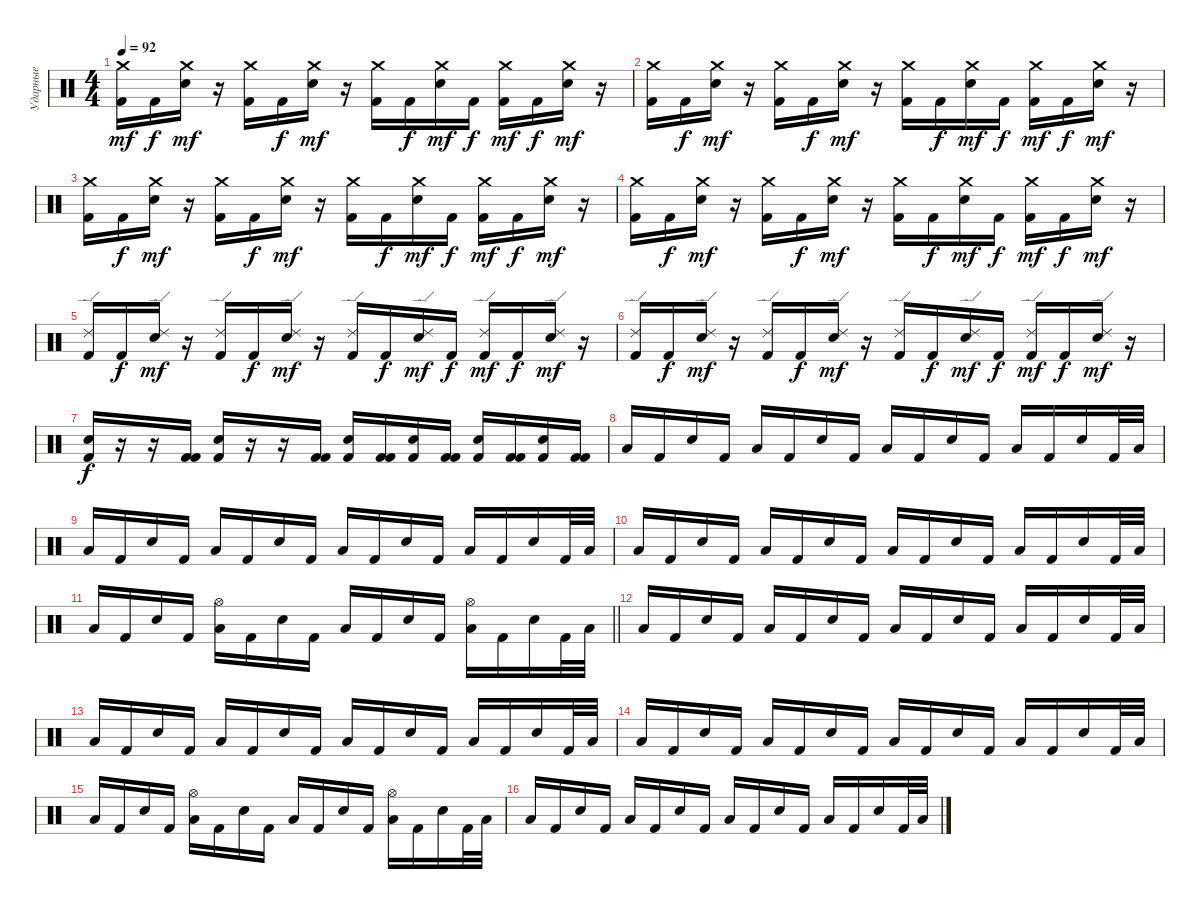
\track ("Ударные" "Ударные") {instrument percussion}
\staff {score}
\articulation defaults
\ts (4 4)
\tempo 92
\clef neutral
\ks c
("Crash medium (hit)" "Kick (hit) 2").16{dy mf} "Kick (hit) 2".16{dy f} ("Crash medium (hit)" "Snare (hit) 2").16{dy mf} r.16 ("Crash medium (hit)" "Kick (hit) 2").16 "Kick (hit) 2".16{dy f} ("Crash medium (hit)" "Snare (hit) 2").16{dy mf} r.16 ("Crash medium (hit)" "Kick (hit) 2").16 "Kick (hit) 2".16{dy f} ("Crash medium (hit)" "Snare (hit) 2").16{dy mf} "Kick (hit) 2".16{dy f} ("Crash medium (hit)" "Kick (hit) 2").16{dy mf} "Kick (hit) 2".16{dy f} ("Crash medium (hit)" "Snare (hit) 2").16{dy mf} r.16 |
("Crash medium (hit)" "Kick (hit) 2").16 "Kick (hit) 2".16{dy f} ("Crash medium (hit)" "Snare (hit) 2").16{dy mf} r.16 ("Crash medium (hit)" "Kick (hit) 2").16 "Kick (hit) 2".16{dy f} ("Crash medium (hit)" "Snare (hit) 2").16{dy mf} r.16 ("Crash medium (hit)" "Kick (hit) 2").16 "Kick (hit) 2".16{dy f} ("Crash medium (hit)" "Snare (hit) 2").16{dy mf} "Kick (hit) 2".16{dy f} ("Crash medium (hit)" "Kick (hit) 2").16{dy mf} "Kick (hit) 2".16{dy f} ("Crash medium (hit)" "Snare (hit) 2").16{dy mf} r.16 |
("Crash medium (hit)" "Kick (hit) 2").16 "Kick (hit) 2".16{dy f} ("Crash medium (hit)" "Snare (hit) 2").16{dy mf} r.16 ("Crash medium (hit)" "Kick (hit) 2").16 "Kick (hit) 2".16{dy f} ("Crash medium (hit)" "Snare (hit) 2").16{dy mf} r.16 ("Crash medium (hit)" "Kick (hit) 2").16 "Kick (hit) 2".16{dy f} ("Crash medium (hit)" "Snare (hit) 2").16{dy mf} "Kick (hit) 2".16{dy f} ("Crash medium (hit)" "Kick (hit) 2").16{dy mf} "Kick (hit) 2".16{dy f} ("Crash medium (hit)" "Snare (hit) 2").16{dy mf} r.16 |
("Crash medium (hit)" "Kick (hit) 2").16 "Kick (hit) 2".16{dy f} ("Crash medium (hit)" "Snare (hit) 2").16{dy mf} r.16 ("Crash medium (hit)" "Kick (hit) 2").16 "Kick (hit) 2".16{dy f} ("Crash medium (hit)" "Snare (hit) 2").16{dy mf} r.16 ("Crash medium (hit)" "Kick (hit) 2").16 "Kick (hit) 2".16{dy f} ("Crash medium (hit)" "Snare (hit) 2").16{dy mf} "Kick (hit) 2".16{dy f} ("Crash medium (hit)" "Kick (hit) 2").16{dy mf} "Kick (hit) 2".16{dy f} ("Crash medium (hit)" "Snare (hit) 2").16{dy mf} r.16 |
("Ride (edge) 2" "Kick (hit) 2").16 "Kick (hit) 2".16{dy f} ("Ride (edge) 2" "Snare (hit) 2").16{dy mf} r.16 ("Ride (edge) 2" "Kick (hit) 2").16 "Kick (hit) 2".16{dy f} ("Ride (edge) 2" "Snare (hit) 2").16{dy mf} r.16 ("Ride (edge) 2" "Kick (hit) 2").16 "Kick (hit) 2".16{dy f} ("Ride (edge) 2" "Snare (hit) 2").16{dy mf} "Kick (hit) 2".16{dy f} ("Ride (edge) 2" "Kick (hit) 2").16{dy mf} "Kick (hit) 2".16{dy f} ("Ride (edge) 2" "Snare (hit) 2").16{dy mf} r.16 |
("Ride (edge) 2" "Kick (hit) 2").16 "Kick (hit) 2".16{dy f} ("Ride (edge) 2" "Snare (hit) 2").16{dy mf} r.16 ("Ride (edge) 2" "Kick (hit) 2").16 "Kick (hit) 2".16{dy f} ("Ride (edge) 2" "Snare (hit) 2").16{dy mf} r.16 ("Ride (edge) 2" "Kick (hit) 2").16 "Kick (hit) 2".16{dy f} ("Ride (edge) 2" "Snare (hit) 2").16{dy mf} "Kick (hit) 2".16{dy f} ("Ride (edge) 2" "Kick (hit) 2").16{dy mf} "Kick (hit) 2".16{dy f} ("Ride (edge) 2" "Snare (hit) 2").16{dy mf} r.16 |
("Kick (hit) 2" "Snare (hit) 2").16{dy f} r.16 r.16 ("Kick (hit) 2" "Kick (hit) 2").16 ("Kick (hit) 2" "Snare (hit) 2").16 r.16 r.16 ("Kick (hit) 2" "Kick (hit) 2").16 ("Kick (hit) 2" "Snare (hit) 2").16 ("Kick (hit) 2" "Kick (hit) 2").16 ("Kick (hit) 2" "Snare (hit) 2").16 ("Kick (hit) 2" "Kick (hit) 2").16 ("Kick (hit) 2" "Snare (hit) 2").16 ("Kick (hit) 2" "Kick (hit) 2").16 ("Kick (hit) 2" "Snare (hit) 2").16 ("Kick (hit) 2" "Kick (hit) 2").16 |
"Low Floor Tom (hit)".16 "Kick (hit) 2".16 "Electric Snare (hit)".16 "Kick (hit) 2".16 "Low Floor Tom (hit)".16 "Kick (hit) 2".16 "Electric Snare (hit)".16 "Kick (hit) 2".16 "Low Floor Tom (hit)".16 "Kick (hit) 2".16 "Electric Snare (hit)".16 "Kick (hit) 2".16 "Low Floor Tom (hit)".16 "Kick (hit) 2".16 "Electric Snare (hit)".16 "Kick (hit) 2".32 "Low Floor Tom (hit)".32 |
"Low Floor Tom (hit)".16 "Kick (hit) 2".16 "Electric Snare (hit)".16 "Kick (hit) 2".16 "Low Floor Tom (hit)".16 "Kick (hit) 2".16 "Electric Snare (hit)".16 "Kick (hit) 2".16 "Low Floor Tom (hit)".16 "Kick (hit) 2".16 "Electric Snare (hit)".16 "Kick (hit) 2".16 "Low Floor Tom (hit)".16 "Kick (hit) 2".16 "Electric Snare (hit)".16 "Kick (hit) 2".32 "Low Floor Tom (hit)".32 |
"Low Floor Tom (hit)".16 "Kick (hit) 2".16 "Electric Snare (hit)".16 "Kick (hit) 2".16 "Low Floor Tom (hit)".16 "Kick (hit) 2".16 "Electric Snare (hit)".16 "Kick (hit) 2".16 "Low Floor Tom (hit)".16 "Kick (hit) 2".16 "Electric Snare (hit)".16 "Kick (hit) 2".16 "Low Floor Tom (hit)".16 "Kick (hit) 2".16 "Electric Snare (hit)".16 "Kick (hit) 2".32 "Low Floor Tom (hit)".32 |
\barLineRight lightlight "Low Floor Tom (hit)".16 "Kick (hit) 2".16 "Electric Snare (hit)".16 "Kick (hit) 2".16
("Hi-Hat (open)" "Low Floor Tom (hit)").16 "Kick (hit) 2".16 "Electric Snare (hit)".16 "Kick (hit) 2".16 "Low Floor Tom (hit)".16 "Kick (hit) 2".16 "Electric Snare (hit)".16 "Kick (hit) 2".16 ("Hi-Hat (open)" "Low Floor Tom (hit)").16 "Kick (hit) 2".16 "Electric Snare (hit)".16 "Kick (hit) 2".32 "Low Floor Tom (hit)".32 |
"Low Floor Tom (hit)".16 "Kick (hit) 2".16 "Electric Snare (hit)".16 "Kick (hit) 2".16 "Low Floor Tom (hit)".16 "Kick (hit) 2".16 "Electric Snare (hit)".16 "Kick (hit) 2".16 "Low Floor Tom (hit)".16 "Kick (hit) 2".16 "Electric Snare (hit)".16 "Kick (hit) 2".16 "Low Floor Tom (hit)".16 "Kick (hit) 2".16 "Electric Snare (hit)".16 "Kick (hit) 2".32 "Low Floor Tom (hit)".32 |
"Low Floor Tom (hit)".16 "Kick (hit) 2".16 "Electric Snare (hit)".16 "Kick (hit) 2".16 "Low Floor Tom (hit)".16 "Kick (hit) 2".16 "Electric Snare (hit)".16 "Kick (hit) 2".16 "Low Floor Tom (hit)".16 "Kick (hit) 2".16 "Electric Snare (hit)".16 "Kick (hit) 2".16 "Low Floor Tom (hit)".16 "Kick (hit) 2".16 "Electric Snare (hit)".16 "Kick (hit) 2".32 "Low Floor Tom (hit)".32 |
"Low Floor Tom (hit)".16 "Kick (hit) 2".16 "Electric Snare (hit)".16 "Kick (hit) 2".16 "Low Floor Tom (hit)".16 "Kick (hit) 2".16 "Electric Snare (hit)".16 "Kick (hit) 2".16 "Low Floor Tom (hit)".16 "Kick (hit) 2".16 "Electric Snare (hit)".16 "Kick (hit) 2".16 "Low Floor Tom (hit)".16 "Kick (hit) 2".16 "Electric Snare (hit)".16 "Kick (hit) 2".32 "Low Floor Tom (hit)".32 |
"Low Floor Tom (hit)".16 "Kick (hit) 2".16 "Electric Snare (hit)".16 "Kick (hit) 2".16 ("Hi-Hat (open)" "Low Floor Tom (hit)").16 "Kick (hit) 2".16 "Electric Snare (hit)".16 "Kick (hit) 2".16 "Low Floor Tom (hit)".16 "Kick (hit) 2".16 "Electric Snare (hit)".16 "Kick (hit) 2".16 ("Hi-Hat (open)" "Low Floor Tom (hit)").16 "Kick (hit) 2".16 "Electric Snare (hit)".16 "Kick (hit) 2".32 "Low Floor Tom (hit)".32 |
"Low Floor Tom (hit)".16 "Kick (hit) 2".16 "Electric Snare (hit)".16 "Kick (hit) 2".16 "Low Floor Tom (hit)".16 "Kick (hit) 2".16 "Electric Snare (hit)".16 "Kick (hit) 2".16 "Low Floor Tom (hit)".16 "Kick (hit) 2".16 "Electric Snare (hit)".16 "Kick (hit) 2".16 "Low Floor Tom (hit)".16 "Kick (hit) 2".16 "Electric Snare (hit)".16 "Kick (hit) 2".32 "Low Floor Tom (hit)".32
